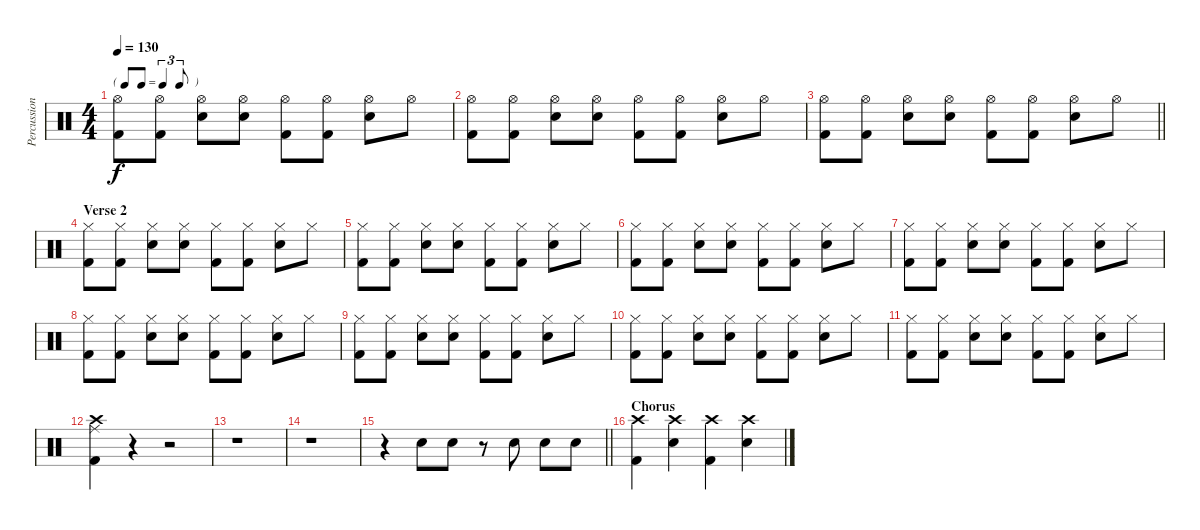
\track ("Percussions" "Percussion") {instrument percussion}
\staff {score}
\articulation defaults
\ts (4 4)
\tf triplet8th
\tempo 130
\clef neutral
\ks c
("Hi-Hat (open)" "Kick (hit) 2").8{dy f} ("Hi-Hat (open)" "Kick (hit) 2").8 ("Hi-Hat (open)" "Electric Snare (hit)").8 ("Hi-Hat (open)" "Electric Snare (hit)").8 ("Hi-Hat (open)" "Kick (hit) 2").8 ("Hi-Hat (open)" "Kick (hit) 2").8 ("Hi-Hat (open)" "Electric Snare (hit)").8 "Hi-Hat (open)".8 |
("Hi-Hat (open)" "Kick (hit) 2").8 ("Hi-Hat (open)" "Kick (hit) 2").8 ("Hi-Hat (open)" "Electric Snare (hit)").8 ("Hi-Hat (open)" "Electric Snare (hit)").8 ("Hi-Hat (open)" "Kick (hit) 2").8 ("Hi-Hat (open)" "Kick (hit) 2").8 ("Hi-Hat (open)" "Electric Snare (hit)").8 "Hi-Hat (open)".8 |
\barLineRight lightlight
("Hi-Hat (open)" "Kick (hit) 2").8 ("Hi-Hat (open)" "Kick (hit) 2").8 ("Hi-Hat (open)" "Electric Snare (hit)").8 ("Hi-Hat (open)" "Electric Snare (hit)").8 ("Hi-Hat (open)" "Kick (hit) 2").8 ("Hi-Hat (open)" "Kick (hit) 2").8 ("Hi-Hat (open)" "Electric Snare (hit)").8 "Hi-Hat (open)".8 |
\section ("" "Verse 2")
("Hi-Hat (closed)" "Kick (hit) 2").8 ("Hi-Hat (closed)" "Kick (hit) 2").8 ("Hi-Hat (closed)" "Electric Snare (hit)").8 ("Hi-Hat (closed)" "Electric Snare (hit)").8 ("Hi-Hat (closed)" "Kick (hit) 2").8 ("Hi-Hat (closed)" "Kick (hit) 2").8 ("Hi-Hat (closed)" "Electric Snare (hit)").8 "Hi-Hat (closed)".8 |
("Hi-Hat (closed)" "Kick (hit) 2").8 ("Hi-Hat (closed)" "Kick (hit) 2").8 ("Hi-Hat (closed)" "Electric Snare (hit)").8 ("Hi-Hat (closed)" "Electric Snare (hit)").8 ("Hi-Hat (closed)" "Kick (hit) 2").8 ("Hi-Hat (closed)" "Kick (hit) 2").8 ("Hi-Hat (closed)" "Electric Snare (hit)").8 "Hi-Hat (closed)".8 |
("Hi-Hat (closed)" "Kick (hit) 2").8 ("Hi-Hat (closed)" "Kick (hit) 2").8 ("Hi-Hat (closed)" "Electric Snare (hit)").8 ("Hi-Hat (closed)" "Electric Snare (hit)").8 ("Hi-Hat (closed)" "Kick (hit) 2").8 ("Hi-Hat (closed)" "Kick (hit) 2").8 ("Hi-Hat (closed)" "Electric Snare (hit)").8 "Hi-Hat (closed)".8 |
("Hi-Hat (closed)" "Kick (hit) 2").8 ("Hi-Hat (closed)" "Kick (hit) 2").8 ("Hi-Hat (closed)" "Electric Snare (hit)").8 ("Hi-Hat (closed)" "Electric Snare (hit)").8 ("Hi-Hat (closed)" "Kick (hit) 2").8 ("Hi-Hat (closed)" "Kick (hit) 2").8 ("Hi-Hat (closed)" "Electric Snare (hit)").8 "Hi-Hat (closed)".8 |
("Hi-Hat (closed)" "Kick (hit) 2").8 ("Hi-Hat (closed)" "Kick (hit) 2").8 ("Hi-Hat (closed)" "Electric Snare (hit)").8 ("Hi-Hat (closed)" "Electric Snare (hit)").8 ("Hi-Hat (closed)" "Kick (hit) 2").8 ("Hi-Hat (closed)" "Kick (hit) 2").8 ("Hi-Hat (closed)" "Electric Snare (hit)").8 "Hi-Hat (closed)".8 |
("Hi-Hat (closed)" "Kick (hit) 2").8 ("Hi-Hat (closed)" "Kick (hit) 2").8 ("Hi-Hat (closed)" "Electric Snare (hit)").8 ("Hi-Hat (closed)" "Electric Snare (hit)").8 ("Hi-Hat (closed)" "Kick (hit) 2").8 ("Hi-Hat (closed)" "Kick (hit) 2").8 ("Hi-Hat (closed)" "Electric Snare (hit)").8 "Hi-Hat (closed)".8 |
("Hi-Hat (closed)" "Kick (hit) 2").8 ("Hi-Hat (closed)" "Kick (hit) 2").8 ("Hi-Hat (closed)" "Electric Snare (hit)").8 ("Hi-Hat (closed)" "Electric Snare (hit)").8 ("Hi-Hat (closed)" "Kick (hit) 2").8 ("Hi-Hat (closed)" "Kick (hit) 2").8 ("Hi-Hat (closed)" "Electric Snare (hit)").8 "Hi-Hat (closed)".8 |
("Hi-Hat (closed)" "Kick (hit) 2").8 ("Hi-Hat (closed)" "Kick (hit) 2").8 ("Hi-Hat (closed)" "Electric Snare (hit)").8 ("Hi-Hat (closed)" "Electric Snare (hit)").8 ("Hi-Hat (closed)" "Kick (hit) 2").8 ("Hi-Hat (closed)" "Kick (hit) 2").8 ("Hi-Hat (closed)" "Electric Snare (hit)").8 "Hi-Hat (closed)".8 |
("Kick (hit) 2" "Ride (middle)" "Crash high (hit)").4 r.4 r.2 |
r.1 |
r.1 |
\barLineRight lightlight
r.4 "Electric Snare (hit)".8 "Electric Snare (hit)".8 r.8 "Electric Snare (hit)".8 "Electric Snare (hit)".8 "Electric Snare (hit)".8 |
\section ("" "Chorus")
("Crash high (hit)" "Kick (hit) 2").4 ("Crash high (hit)" "Electric Snare (hit)").4 ("Crash high (hit)" "Kick (hit) 2").4 ("Crash high (hit)" "Electric Snare (hit)").4
